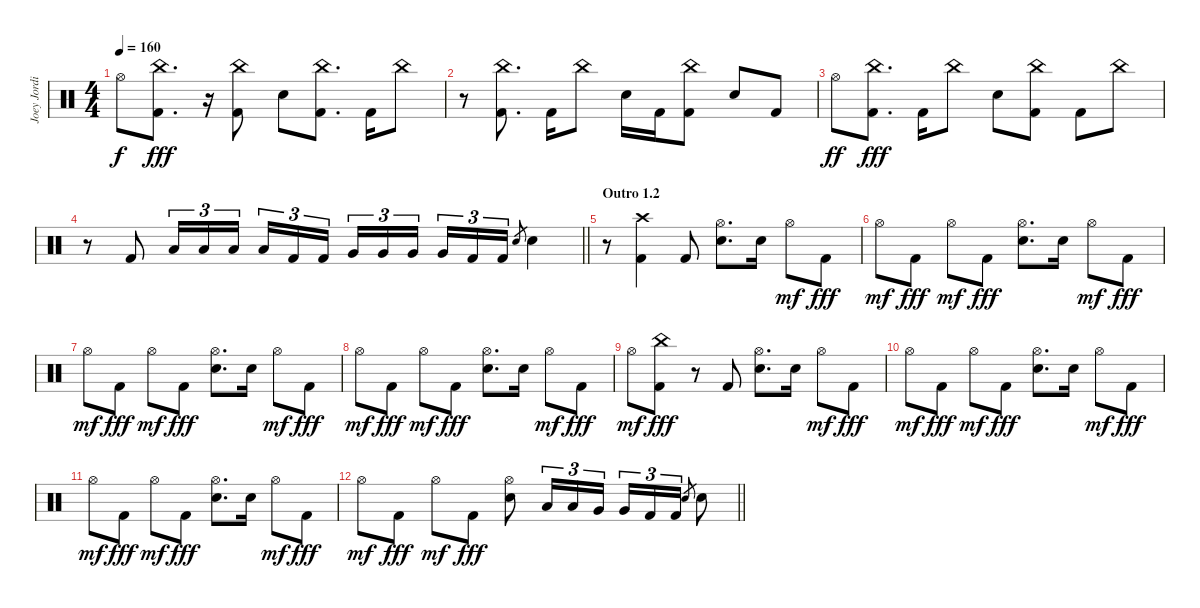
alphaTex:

\track ("Joey Jordison" "Joey Jordi") {instrument percussion}
\staff {score}
\articulation defaults
\ts (4 4)
\tempo 160
\clef neutral
\ks c "Hi-Hat (open)".8{dy f}
("China (hit)" "Kick (hit) 2").8{d dy fff} r.16 ("China (hit)" "Kick (hit) 2").8 "Electric Snare (hit)".8 ("China (hit)" "Kick (hit) 2").8{d} "Kick (hit) 2".16 "China (hit)".8 |
r.8 ("China (hit)" "Kick (hit) 2").8{d} "Kick (hit) 2".16 "China (hit)".8 "Electric Snare (hit)".16 "Kick (hit) 2".16 ("China (hit)" "Kick (hit) 2").8 "Electric Snare (hit)".8 "Kick (hit) 2".8 |
"Hi-Hat (open)".8{dy ff} ("China (hit)" "Kick (hit) 2").8{d dy fff} "Kick (hit) 2".16 "China (hit)".8 "Electric Snare (hit)".8 ("China (hit)" "Kick (hit) 2").8 "Kick (hit) 2".8 "China (hit)".8 |
\barLineRight lightlight
r.8 "Kick (hit) 2".8 "Low Tom (hit)".16{tu (3 2)} "Low Tom (hit)".16{tu (3 2)} "Low Tom (hit)".16{tu (3 2) beam splitsecondary} "Low Tom (hit)".16{tu (3 2)} "Kick (hit) 2".16{tu (3 2)} "Kick (hit) 2".16{tu (3 2)} "Very Low Tom (hit)".16{tu (3 2)} "Very Low Tom (hit)".16{tu (3 2)} "Very Low Tom (hit)".16{tu (3 2) beam splitsecondary} "Very Low Tom (hit)".16{tu (3 2)} "Kick (hit) 2".16{tu (3 2)} "Kick (hit) 2".16{tu (3 2)} "Electric Snare (hit)".8{gr} "Electric Snare (hit)".4 |
\section ("" "Outro 1.2")
r.8 ("Crash high (hit)" "Kick (hit) 2").4 "Kick (hit) 2".8 ("Hi-Hat (open)" "Electric Snare (hit)").8{d} "Electric Snare (hit)".16 "Hi-Hat (open)".8{dy mf} "Kick (hit) 2".8{dy fff} |
"Hi-Hat (open)".8{dy mf} "Kick (hit) 2".8{dy fff} "Hi-Hat (open)".8{dy mf} "Kick (hit) 2".8{dy fff} ("Hi-Hat (open)" "Electric Snare (hit)").8{d} "Electric Snare (hit)".16 "Hi-Hat (open)".8{dy mf} "Kick (hit) 2".8{dy fff} |
"Hi-Hat (open)".8{dy mf} "Kick (hit) 2".8{dy fff} "Hi-Hat (open)".8{dy mf} "Kick (hit) 2".8{dy fff} ("Hi-Hat (open)" "Electric Snare (hit)").8{d} "Electric Snare (hit)".16 "Hi-Hat (open)".8{dy mf} "Kick (hit) 2".8{dy fff} |
"Hi-Hat (open)".8{dy mf} "Kick (hit) 2".8{dy fff} "Hi-Hat (open)".8{dy mf} "Kick (hit) 2".8{dy fff} ("Hi-Hat (open)" "Electric Snare (hit)").8{d} "Electric Snare (hit)".16 "Hi-Hat (open)".8{dy mf} "Kick (hit) 2".8{dy fff} |
"Hi-Hat (open)".8{dy mf} ("China (hit)" "Kick (hit) 2").8{dy fff} r.8{volume 0} "Kick (hit) 2".8{volume 13} ("Hi-Hat (open)" "Electric Snare (hit)").8{d} "Electric Snare (hit)".16 "Hi-Hat (open)".8{dy mf} "Kick (hit) 2".8{dy fff} |
"Hi-Hat (open)".8{dy mf} "Kick (hit) 2".8{dy fff} "Hi-Hat (open)".8{dy mf} "Kick (hit) 2".8{dy fff} ("Hi-Hat (open)" "Electric Snare (hit)").8{d} "Electric Snare (hit)".16 "Hi-Hat (open)".8{dy mf} "Kick (hit) 2".8{dy fff} |
"Hi-Hat (open)".8{dy mf} "Kick (hit) 2".8{dy fff} "Hi-Hat (open)".8{dy mf} "Kick (hit) 2".8{dy fff} ("Hi-Hat (open)" "Electric Snare (hit)").8{d} "Electric Snare (hit)".16 "Hi-Hat (open)".8{dy mf} "Kick (hit) 2".8{dy fff} |
\barLineRight lightlight "Hi-Hat (open)".8{dy mf} "Kick (hit) 2".8{dy fff} "Hi-Hat (open)".8{dy mf} "Kick (hit) 2".8{dy fff}
("Hi-Hat (open)" "Electric Snare (hit)").8 "Low Tom (hit)".16{tu (3 2)} "Low Tom (hit)".16{tu (3 2)} "Very Low Tom (hit)".16{tu (3 2)} "Very Low Tom (hit)".16{tu (3 2)} "Kick (hit) 2".16{tu (3 2)} "Kick (hit) 2".16{tu (3 2)} "Electric Snare (hit)".8{gr} "Electric Snare (hit)".8
